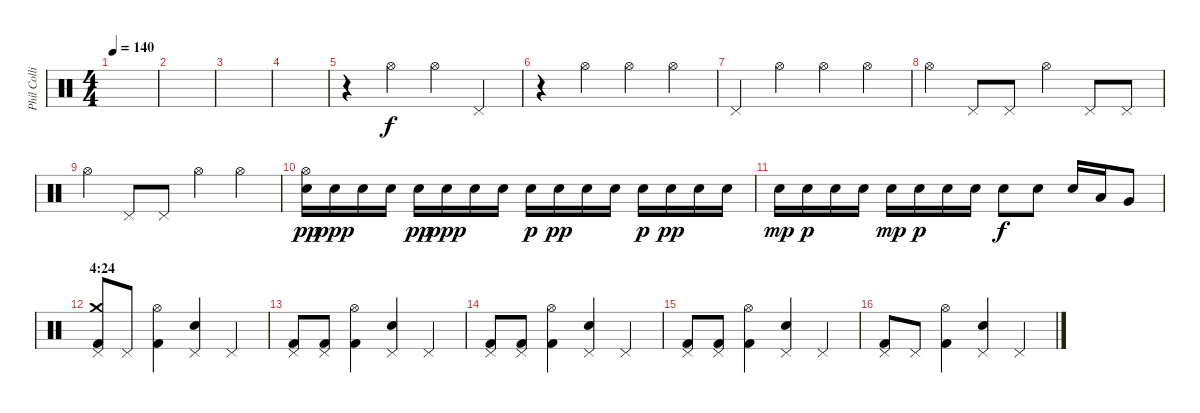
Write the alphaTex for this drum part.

\track ("Phil Collins (drums)" "Phil Colli") {instrument percussion}
\staff {score}
\articulation defaults
\ts (4 4)
\tempo 140
\clef neutral
\ks c
|
|
|
|
r.4 "Hi-Hat (open)".4 "Hi-Hat (open)".4 "Pedal Hi-Hat (hit)".4 |
r.4 "Hi-Hat (open)".4 "Hi-Hat (open)".4 "Hi-Hat (open)".4 |
"Pedal Hi-Hat (hit)".4 "Hi-Hat (open)".4 "Hi-Hat (open)".4 "Hi-Hat (open)".4 |
"Hi-Hat (open)".4 "Pedal Hi-Hat (hit)".8 "Pedal Hi-Hat (hit)".8 "Hi-Hat (open)".4 "Pedal Hi-Hat (hit)".8 "Pedal Hi-Hat (hit)".8 |
"Hi-Hat (open)".4 "Pedal Hi-Hat (hit)".8 "Pedal Hi-Hat (hit)".8 "Hi-Hat (open)".4 "Hi-Hat (open)".4 |
("Hi-Hat (open)" "Electric Snare (hit)").16{dy pp} "Electric Snare (hit)".16{dy ppp} "Electric Snare (hit)".16 "Electric Snare (hit)".16 "Electric Snare (hit)".16{dy pp} "Electric Snare (hit)".16{dy ppp} "Electric Snare (hit)".16 "Electric Snare (hit)".16 "Electric Snare (hit)".16{dy p} "Electric Snare (hit)".16{dy pp} "Electric Snare (hit)".16 "Electric Snare (hit)".16 "Electric Snare (hit)".16{dy p} "Electric Snare (hit)".16{dy pp} "Electric Snare (hit)".16 "Electric Snare (hit)".16 |
"Electric Snare (hit)".16{dy mp} "Electric Snare (hit)".16{dy p} "Electric Snare (hit)".16 "Electric Snare (hit)".16 "Electric Snare (hit)".16{dy mp} "Electric Snare (hit)".16{dy p} "Electric Snare (hit)".16 "Electric Snare (hit)".16 "Electric Snare (hit)".8{dy f} "Electric Snare (hit)".8 "Electric Snare (hit)".16 "Low Tom (hit)".16 "Very Low Tom (hit)".8 |
\section ("" "4:24")
("Crash medium (hit)" "Pedal Hi-Hat (hit)" "Kick (hit) 2").8 "Pedal Hi-Hat (hit)".8 ("Hi-Hat (open)" "Kick (hit) 2").4 ("Pedal Hi-Hat (hit)" "Electric Snare (hit)").4 "Pedal Hi-Hat (hit)".4 |
("Pedal Hi-Hat (hit)" "Kick (hit) 2").8 ("Pedal Hi-Hat (hit)" "Kick (hit) 2").8 ("Hi-Hat (open)" "Kick (hit) 2").4 ("Pedal Hi-Hat (hit)" "Electric Snare (hit)").4 "Pedal Hi-Hat (hit)".4 |
("Pedal Hi-Hat (hit)" "Kick (hit) 2").8 ("Pedal Hi-Hat (hit)" "Kick (hit) 2").8 ("Hi-Hat (open)" "Kick (hit) 2").4 ("Pedal Hi-Hat (hit)" "Electric Snare (hit)").4 "Pedal Hi-Hat (hit)".4 |
("Pedal Hi-Hat (hit)" "Kick (hit) 2").8 ("Pedal Hi-Hat (hit)" "Kick (hit) 2").8 ("Hi-Hat (open)" "Kick (hit) 2").4 ("Pedal Hi-Hat (hit)" "Electric Snare (hit)").4 "Pedal Hi-Hat (hit)".4 |
("Pedal Hi-Hat (hit)" "Kick (hit) 2").8 "Pedal Hi-Hat (hit)".8 ("Hi-Hat (open)" "Kick (hit) 2").4 ("Pedal Hi-Hat (hit)" "Electric Snare (hit)").4 "Pedal Hi-Hat (hit)".4
